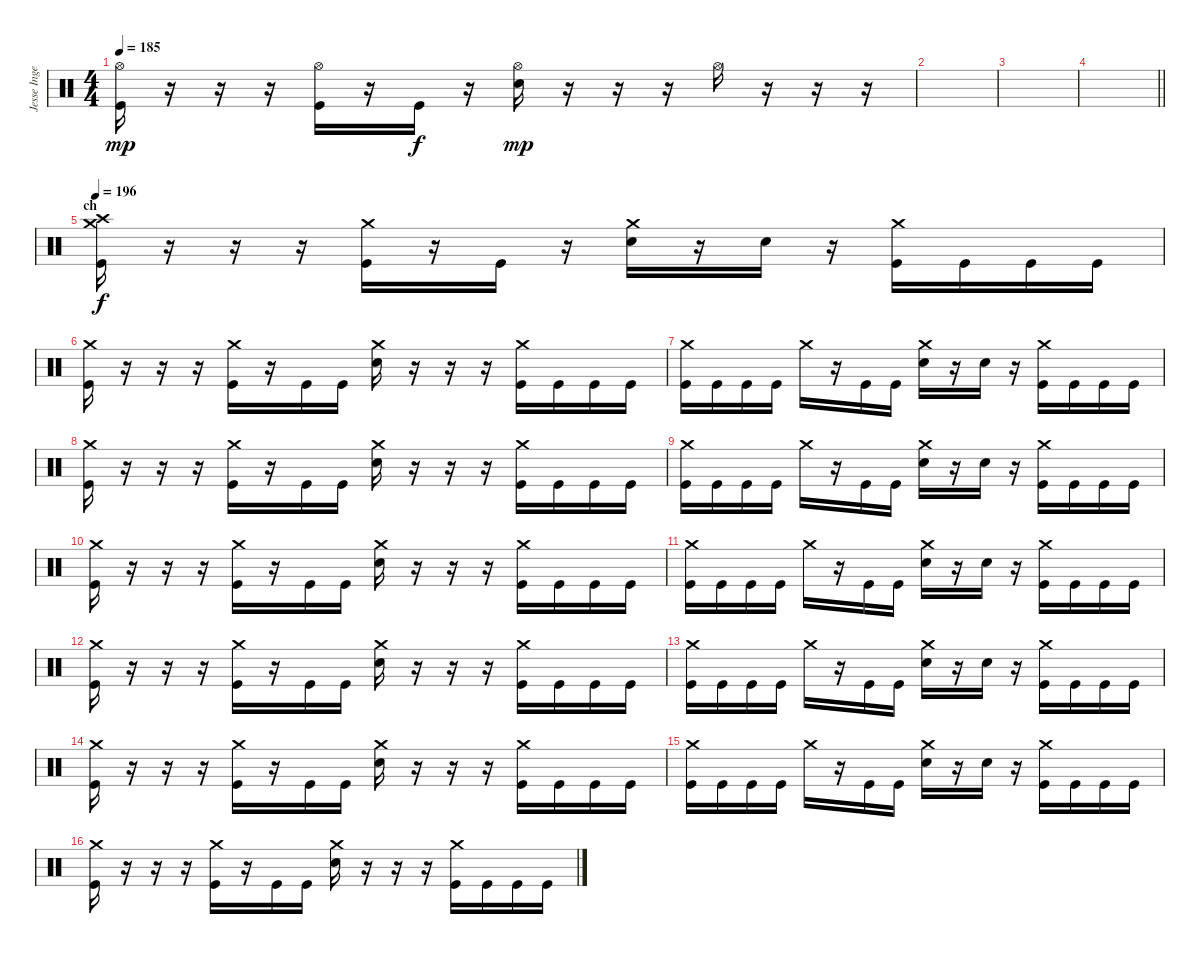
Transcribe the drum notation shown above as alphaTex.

\track ("Jesse Ingelevics" "Jesse Inge") {instrument percussion}
\staff {score}
\articulation defaults
\ts (4 4)
\tempo 185
\clef neutral
\ks c
("Hi-Hat (open)" "Kick (hit)").16{dy mp} r.16 r.16 r.16 ("Hi-Hat (open)" "Kick (hit)").16 r.16 "Kick (hit)".16{dy f} r.16 ("Hi-Hat (open)" "Electric Snare (hit)").16{dy mp} r.16 r.16 r.16 "Hi-Hat (open)".16 r.16 r.16 r.16 |
|
|
\barLineRight lightlight
|
\section ("" "ch")
\tempo 196
("Crash high (hit)" "Crash medium (hit)" "Kick (hit)").16{dy f} r.16 r.16 r.16 ("Crash medium (hit)" "Kick (hit)").16 r.16 "Kick (hit)".16 r.16 ("Crash medium (hit)" "Electric Snare (hit)").16 r.16 "Electric Snare (hit)".16 r.16 ("Crash medium (hit)" "Kick (hit)").16 "Kick (hit)".16 "Kick (hit)".16 "Kick (hit)".16 |
("Crash medium (hit)" "Kick (hit)").16 r.16 r.16 r.16 ("Crash medium (hit)" "Kick (hit)").16 r.16 "Kick (hit)".16 "Kick (hit)".16 ("Crash medium (hit)" "Electric Snare (hit)").16 r.16 r.16 r.16 ("Crash medium (hit)" "Kick (hit)").16 "Kick (hit)".16 "Kick (hit)".16 "Kick (hit)".16 |
("Crash medium (hit)" "Kick (hit)").16 "Kick (hit)".16 "Kick (hit)".16 "Kick (hit)".16 "Crash medium (hit)".16 r.16 "Kick (hit)".16 "Kick (hit)".16 ("Crash medium (hit)" "Electric Snare (hit)").16 r.16 "Electric Snare (hit)".16 r.16 ("Crash medium (hit)" "Kick (hit)").16 "Kick (hit)".16 "Kick (hit)".16 "Kick (hit)".16 |
("Crash medium (hit)" "Kick (hit)").16 r.16 r.16 r.16 ("Crash medium (hit)" "Kick (hit)").16 r.16 "Kick (hit)".16 "Kick (hit)".16 ("Crash medium (hit)" "Electric Snare (hit)").16 r.16 r.16 r.16 ("Crash medium (hit)" "Kick (hit)").16 "Kick (hit)".16 "Kick (hit)".16 "Kick (hit)".16 |
("Crash medium (hit)" "Kick (hit)").16 "Kick (hit)".16 "Kick (hit)".16 "Kick (hit)".16 "Crash medium (hit)".16 r.16 "Kick (hit)".16 "Kick (hit)".16 ("Crash medium (hit)" "Electric Snare (hit)").16 r.16 "Electric Snare (hit)".16 r.16 ("Crash medium (hit)" "Kick (hit)").16 "Kick (hit)".16 "Kick (hit)".16 "Kick (hit)".16 |
("Crash medium (hit)" "Kick (hit)").16 r.16 r.16 r.16 ("Crash medium (hit)" "Kick (hit)").16 r.16 "Kick (hit)".16 "Kick (hit)".16 ("Crash medium (hit)" "Electric Snare (hit)").16 r.16 r.16 r.16 ("Crash medium (hit)" "Kick (hit)").16 "Kick (hit)".16 "Kick (hit)".16 "Kick (hit)".16 |
("Crash medium (hit)" "Kick (hit)").16 "Kick (hit)".16 "Kick (hit)".16 "Kick (hit)".16 "Crash medium (hit)".16 r.16 "Kick (hit)".16 "Kick (hit)".16 ("Crash medium (hit)" "Electric Snare (hit)").16 r.16 "Electric Snare (hit)".16 r.16 ("Crash medium (hit)" "Kick (hit)").16 "Kick (hit)".16 "Kick (hit)".16 "Kick (hit)".16 |
("Crash medium (hit)" "Kick (hit)").16 r.16 r.16 r.16 ("Crash medium (hit)" "Kick (hit)").16 r.16 "Kick (hit)".16 "Kick (hit)".16 ("Crash medium (hit)" "Electric Snare (hit)").16 r.16 r.16 r.16 ("Crash medium (hit)" "Kick (hit)").16 "Kick (hit)".16 "Kick (hit)".16 "Kick (hit)".16 |
("Crash medium (hit)" "Kick (hit)").16 "Kick (hit)".16 "Kick (hit)".16 "Kick (hit)".16 "Crash medium (hit)".16 r.16 "Kick (hit)".16 "Kick (hit)".16 ("Crash medium (hit)" "Electric Snare (hit)").16 r.16 "Electric Snare (hit)".16 r.16 ("Crash medium (hit)" "Kick (hit)").16 "Kick (hit)".16 "Kick (hit)".16 "Kick (hit)".16 |
("Crash medium (hit)" "Kick (hit)").16 r.16 r.16 r.16 ("Crash medium (hit)" "Kick (hit)").16 r.16 "Kick (hit)".16 "Kick (hit)".16 ("Crash medium (hit)" "Electric Snare (hit)").16 r.16 r.16 r.16 ("Crash medium (hit)" "Kick (hit)").16 "Kick (hit)".16 "Kick (hit)".16 "Kick (hit)".16 |
("Crash medium (hit)" "Kick (hit)").16 "Kick (hit)".16 "Kick (hit)".16 "Kick (hit)".16 "Crash medium (hit)".16 r.16 "Kick (hit)".16 "Kick (hit)".16 ("Crash medium (hit)" "Electric Snare (hit)").16 r.16 "Electric Snare (hit)".16 r.16 ("Crash medium (hit)" "Kick (hit)").16 "Kick (hit)".16 "Kick (hit)".16 "Kick (hit)".16 |
("Crash medium (hit)" "Kick (hit)").16 r.16 r.16 r.16 ("Crash medium (hit)" "Kick (hit)").16 r.16 "Kick (hit)".16 "Kick (hit)".16 ("Crash medium (hit)" "Electric Snare (hit)").16 r.16 r.16 r.16 ("Crash medium (hit)" "Kick (hit)").16 "Kick (hit)".16 "Kick (hit)".16 "Kick (hit)".16
